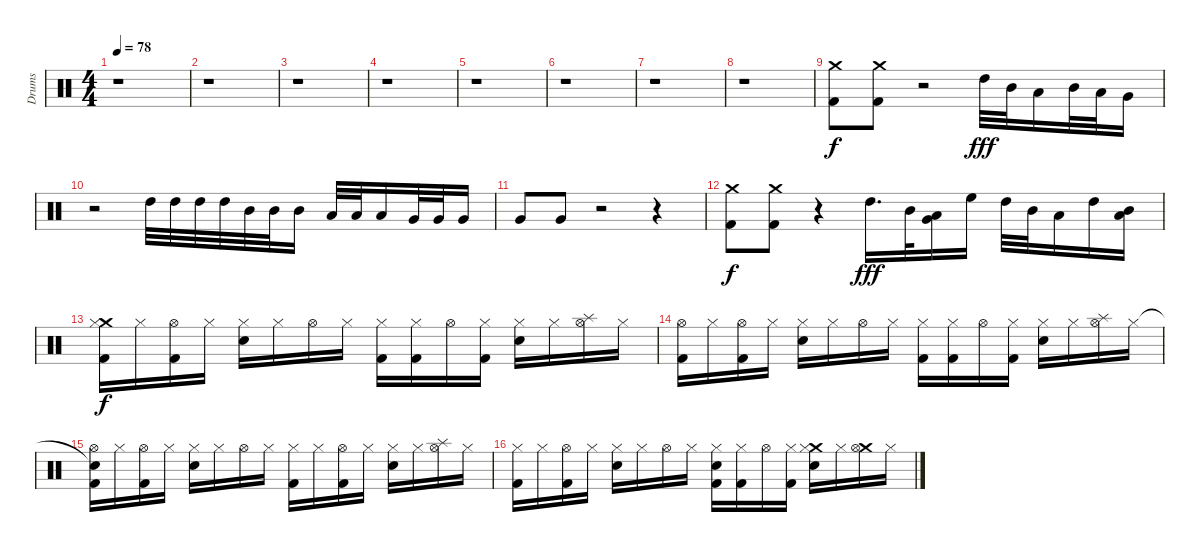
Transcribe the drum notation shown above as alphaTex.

\track ("Drums" "Drums") {instrument percussion}
\staff {score}
\articulation defaults
\ts (4 4)
\tempo 78
\clef neutral
\ks c
r.1{dy f} |
r.1 |
r.1 |
r.1 |
r.1 |
r.1 |
r.1 |
r.1 |
("Crash medium (hit)" "Kick (hit) 2").8 ("Crash medium (hit)" "Kick (hit) 2").8 r.2 "High Tom (hit)".32{dy fff} "Mid Tom (hit)".32 "Low Tom (hit)".16 "Mid Tom (hit)".32 "Low Tom (hit)".32 "Very Low Tom (hit)".16 |
r.2 "High Tom (hit)".32 "High Tom (hit)".32 "High Tom (hit)".32 "High Tom (hit)".32 "Mid Tom (hit)".32 "Mid Tom (hit)".32 "Mid Tom (hit)".16 "Low Tom (hit)".32 "Low Tom (hit)".32 "Low Tom (hit)".16 "Very Low Tom (hit)".32 "Very Low Tom (hit)".32 "Very Low Tom (hit)".16 |
"Very Low Tom (hit)".8 "Very Low Tom (hit)".8 r.2 r.4 |
("Crash medium (hit)" "Kick (hit) 2").8{dy f} ("Crash medium (hit)" "Kick (hit) 2").8 r.4 "High Tom (hit)".16{d dy fff} "Mid Tom (hit)".32 ("Low Tom (hit)" "Very Low Tom (hit)").16 "High Floor Tom (hit)".16 "High Tom (hit)".32 "Mid Tom (hit)".32 "Low Tom (hit)".16 "High Tom (hit)".16 ("Mid Tom (hit)" "Low Tom (hit)").16 |
("Crash medium (hit)" "Hi-Hat (closed)" "Kick (hit) 2").16{dy f} "Hi-Hat (closed)".16 ("Hi-Hat (open)" "Kick (hit) 2").16 "Hi-Hat (closed)".16 ("Hi-Hat (closed)" "Snare (hit) 2").16 "Hi-Hat (closed)".16 "Hi-Hat (open)".16 "Hi-Hat (closed)".16 ("Hi-Hat (closed)" "Kick (hit) 2").16 ("Hi-Hat (closed)" "Kick (hit) 2").16 "Hi-Hat (open)".16 ("Hi-Hat (closed)" "Kick (hit) 2").16 ("Hi-Hat (closed)" "Snare (hit) 2").16 "Hi-Hat (closed)".16 ("Splash (hit)" "Hi-Hat (open)").16 "Hi-Hat (closed)".16 |
("Hi-Hat (open)" "Kick (hit) 2").16 "Hi-Hat (closed)".16 ("Hi-Hat (open)" "Kick (hit) 2").16 "Hi-Hat (closed)".16 ("Hi-Hat (closed)" "Snare (hit) 2").16 "Hi-Hat (closed)".16 "Hi-Hat (open)".16 "Hi-Hat (closed)".16 ("Hi-Hat (closed)" "Kick (hit) 2").16 ("Hi-Hat (closed)" "Kick (hit) 2").16 "Hi-Hat (open)".16 ("Hi-Hat (closed)" "Kick (hit) 2").16 ("Hi-Hat (closed)" "Snare (hit) 2").16 "Hi-Hat (closed)".16 ("Splash (hit)" "Hi-Hat (open)").16 "Hi-Hat (closed)".16 |
("Snare (hit)"{t} "Hi-Hat (open)" "Kick (hit) 2").16 "Hi-Hat (closed)".16 ("Hi-Hat (open)" "Kick (hit) 2").16 "Hi-Hat (closed)".16 ("Hi-Hat (closed)" "Snare (hit) 2").16 "Hi-Hat (closed)".16 "Hi-Hat (open)".16 "Hi-Hat (closed)".16 ("Hi-Hat (closed)" "Kick (hit) 2").16 "Hi-Hat (closed)".16 ("Hi-Hat (open)" "Kick (hit) 2").16 "Hi-Hat (closed)".16 ("Hi-Hat (closed)" "Snare (hit) 2").16 "Hi-Hat (closed)".16 ("Splash (hit)" "Hi-Hat (open)").16 "Hi-Hat (closed)".16 |
("Hi-Hat (closed)" "Kick (hit) 2").16 "Hi-Hat (closed)".16 ("Hi-Hat (open)" "Kick (hit) 2").16 "Hi-Hat (closed)".16 ("Hi-Hat (closed)" "Snare (hit) 2").16 "Hi-Hat (closed)".16 "Hi-Hat (open)".16 "Hi-Hat (closed)".16 ("Hi-Hat (closed)" "Snare (hit) 2" "Kick (hit) 2").16 ("Hi-Hat (closed)" "Kick (hit) 2").16 "Hi-Hat (open)".16 ("Hi-Hat (closed)" "Kick (hit) 2").16 ("Crash medium (hit)" "Hi-Hat (closed)" "Snare (hit) 2").16 "Hi-Hat (closed)".16 ("Crash medium (hit)" "Hi-Hat (open)").16 "Hi-Hat (closed)".16
